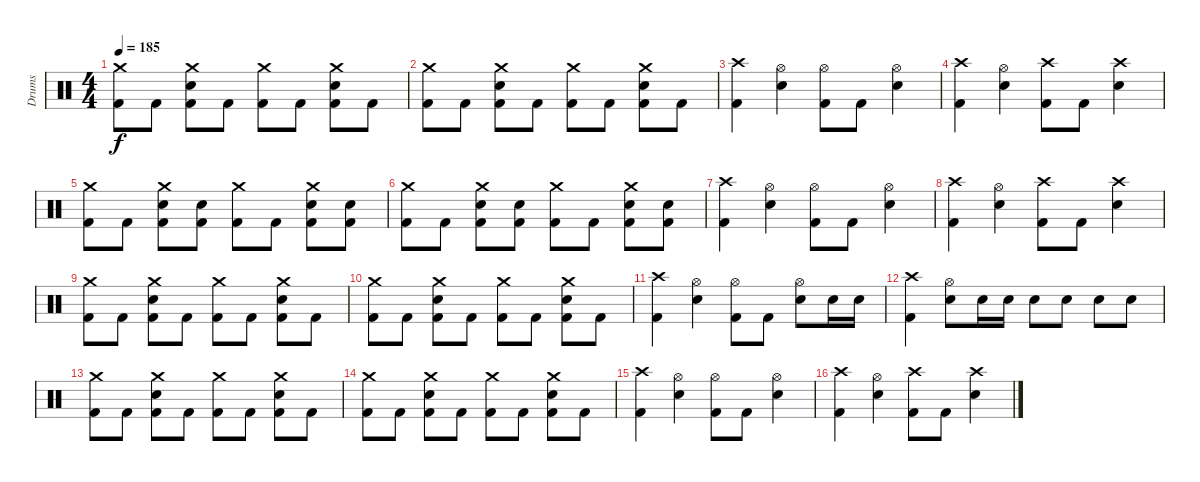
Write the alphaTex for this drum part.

\track ("Drums" "Drums") {instrument percussion}
\staff {score}
\articulation defaults
\ts (4 4)
\tempo 185
\clef neutral
\ks c
("Crash medium (hit)" "Kick (hit) 2").8{dy f} "Kick (hit) 2".8 ("Crash medium (hit)" "Electric Snare (hit)" "Kick (hit) 2").8 "Kick (hit) 2".8 ("Crash medium (hit)" "Kick (hit) 2").8 "Kick (hit) 2".8 ("Crash medium (hit)" "Electric Snare (hit)" "Kick (hit) 2").8 "Kick (hit) 2".8 |
("Crash medium (hit)" "Kick (hit) 2").8 "Kick (hit) 2".8 ("Crash medium (hit)" "Electric Snare (hit)" "Kick (hit) 2").8 "Kick (hit) 2".8 ("Crash medium (hit)" "Kick (hit) 2").8 "Kick (hit) 2".8 ("Crash medium (hit)" "Electric Snare (hit)" "Kick (hit) 2").8 "Kick (hit) 2".8 |
("Crash high (hit)" "Kick (hit) 2").4 ("Hi-Hat (open)" "Electric Snare (hit)").4 ("Hi-Hat (open)" "Kick (hit) 2").8 "Kick (hit) 2".8 ("Hi-Hat (open)" "Electric Snare (hit)").4 |
("Crash high (hit)" "Kick (hit) 2").4 ("Hi-Hat (open)" "Electric Snare (hit)").4 ("Crash high (hit)" "Kick (hit) 2").8 "Kick (hit) 2".8 ("Crash high (hit)" "Electric Snare (hit)").4 |
("Crash medium (hit)" "Kick (hit) 2").8 "Kick (hit) 2".8 ("Crash medium (hit)" "Electric Snare (hit)" "Kick (hit) 2").8 ("Electric Snare (hit)" "Kick (hit) 2").8 ("Crash medium (hit)" "Kick (hit) 2").8 "Kick (hit) 2".8 ("Crash medium (hit)" "Electric Snare (hit)" "Kick (hit) 2").8 ("Electric Snare (hit)" "Kick (hit) 2").8 |
("Crash medium (hit)" "Kick (hit) 2").8 "Kick (hit) 2".8 ("Crash medium (hit)" "Electric Snare (hit)" "Kick (hit) 2").8 ("Electric Snare (hit)" "Kick (hit) 2").8 ("Crash medium (hit)" "Kick (hit) 2").8 "Kick (hit) 2".8 ("Crash medium (hit)" "Electric Snare (hit)" "Kick (hit) 2").8 ("Electric Snare (hit)" "Kick (hit) 2").8 |
("Crash high (hit)" "Kick (hit) 2").4 ("Hi-Hat (open)" "Electric Snare (hit)").4 ("Hi-Hat (open)" "Kick (hit) 2").8 "Kick (hit) 2".8 ("Hi-Hat (open)" "Electric Snare (hit)").4 |
("Crash high (hit)" "Kick (hit) 2").4 ("Hi-Hat (open)" "Electric Snare (hit)").4 ("Crash high (hit)" "Kick (hit) 2").8 "Kick (hit) 2".8 ("Crash high (hit)" "Electric Snare (hit)").4 |
("Crash medium (hit)" "Kick (hit) 2").8 "Kick (hit) 2".8 ("Crash medium (hit)" "Electric Snare (hit)" "Kick (hit) 2").8 "Kick (hit) 2".8 ("Crash medium (hit)" "Kick (hit) 2").8 "Kick (hit) 2".8 ("Crash medium (hit)" "Electric Snare (hit)" "Kick (hit) 2").8 "Kick (hit) 2".8 |
("Crash medium (hit)" "Kick (hit) 2").8 "Kick (hit) 2".8 ("Crash medium (hit)" "Electric Snare (hit)" "Kick (hit) 2").8 "Kick (hit) 2".8 ("Crash medium (hit)" "Kick (hit) 2").8 "Kick (hit) 2".8 ("Crash medium (hit)" "Electric Snare (hit)" "Kick (hit) 2").8 "Kick (hit) 2".8 |
("Crash high (hit)" "Kick (hit) 2").4 ("Hi-Hat (open)" "Electric Snare (hit)").4 ("Hi-Hat (open)" "Kick (hit) 2").8 "Kick (hit) 2".8 ("Hi-Hat (open)" "Electric Snare (hit)").8 "Electric Snare (hit)".16 "Electric Snare (hit)".16 |
("Crash high (hit)" "Kick (hit) 2").4 ("Hi-Hat (open)" "Electric Snare (hit)").8 "Electric Snare (hit)".16 "Electric Snare (hit)".16 "Electric Snare (hit)".8 "Electric Snare (hit)".8 "Electric Snare (hit)".8 "Electric Snare (hit)".8 |
("Crash medium (hit)" "Kick (hit) 2").8 "Kick (hit) 2".8 ("Crash medium (hit)" "Electric Snare (hit)" "Kick (hit) 2").8 "Kick (hit) 2".8 ("Crash medium (hit)" "Kick (hit) 2").8 "Kick (hit) 2".8 ("Crash medium (hit)" "Electric Snare (hit)" "Kick (hit) 2").8 "Kick (hit) 2".8 |
("Crash medium (hit)" "Kick (hit) 2").8 "Kick (hit) 2".8 ("Crash medium (hit)" "Electric Snare (hit)" "Kick (hit) 2").8 "Kick (hit) 2".8 ("Crash medium (hit)" "Kick (hit) 2").8 "Kick (hit) 2".8 ("Crash medium (hit)" "Electric Snare (hit)" "Kick (hit) 2").8 "Kick (hit) 2".8 |
("Crash high (hit)" "Kick (hit) 2").4 ("Hi-Hat (open)" "Electric Snare (hit)").4 ("Hi-Hat (open)" "Kick (hit) 2").8 "Kick (hit) 2".8 ("Hi-Hat (open)" "Electric Snare (hit)").4 |
("Crash high (hit)" "Kick (hit) 2").4 ("Hi-Hat (open)" "Electric Snare (hit)").4 ("Crash high (hit)" "Kick (hit) 2").8 "Kick (hit) 2".8 ("Crash high (hit)" "Electric Snare (hit)").4
